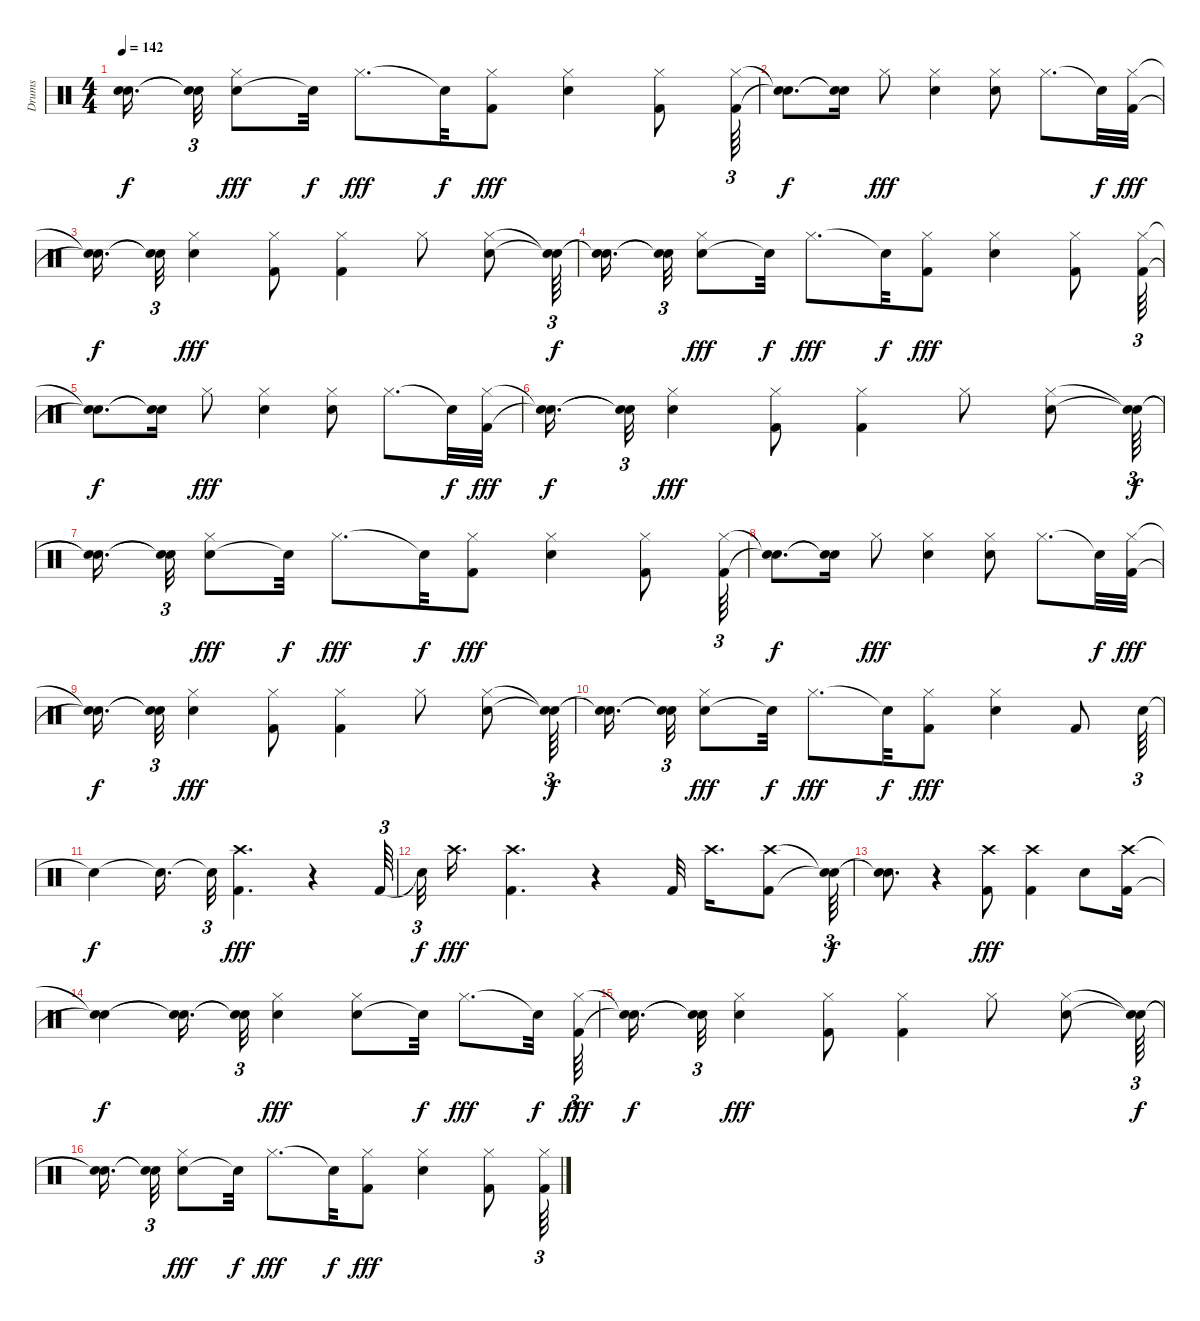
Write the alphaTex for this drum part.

\track ("Drums" "Drums") {instrument percussion}
\staff {score}
\articulation defaults
\ts (4 4)
\tempo 142
\clef neutral
\ks c
("Snare (hit)"{t} "Snare (hit)"{t}).16{d dy f} ("Snare (hit)"{t} "Snare (hit)"{t}).32{tu (3 2)} ("Snare (hit) 2" "Hi-Hat (closed)").8{dy fff} "Snare (hit)"{t}.32{dy f} "Hi-Hat (closed)".8{d dy fff} "Snare (hit)"{t}.32{dy f} ("Hi-Hat (closed)" "Kick (hit) 2").8{dy fff} ("Electric Snare (hit)" "Hi-Hat (closed)").4 ("Hi-Hat (closed)" "Kick (hit) 2").8 ("Hi-Hat (closed)" "Kick (hit) 2").64{tu (3 2)} |
("Snare (hit)"{t} "Snare (hit)"{t}).8{d dy f} ("Snare (hit)"{t} "Snare (hit)"{t}).16 "Hi-Hat (closed)".8{dy fff} ("Snare (hit) 2" "Hi-Hat (closed)").4 ("Snare (hit) 2" "Hi-Hat (closed)").8 "Hi-Hat (closed)".8{d} "Snare (hit)"{t}.32{dy f} ("Hi-Hat (closed)" "Kick (hit) 2").32{dy fff} |
("Snare (hit)"{t} "Snare (hit)"{t}).16{d dy f} ("Snare (hit)"{t} "Snare (hit)"{t}).32{tu (3 2)} ("Electric Snare (hit)" "Hi-Hat (closed)").4{dy fff} ("Kick (hit) 2" "Hi-Hat (closed)").8 ("Hi-Hat (closed)" "Kick (hit) 2").4 "Hi-Hat (closed)".8 ("Snare (hit) 2" "Hi-Hat (closed)").8 ("Snare (hit)"{t} "Snare (hit)"{t}).64{tu (3 2) dy f} |
("Snare (hit)"{t} "Snare (hit)"{t}).16{d} ("Snare (hit)"{t} "Snare (hit)"{t}).32{tu (3 2)} ("Snare (hit) 2" "Hi-Hat (closed)").8{dy fff} "Snare (hit)"{t}.32{dy f} "Hi-Hat (closed)".8{d dy fff} "Snare (hit)"{t}.32{dy f} ("Hi-Hat (closed)" "Kick (hit) 2").8{dy fff} ("Electric Snare (hit)" "Hi-Hat (closed)").4 ("Hi-Hat (closed)" "Kick (hit) 2").8 ("Kick (hit) 2" "Hi-Hat (closed)").64{tu (3 2)} |
("Snare (hit)"{t} "Snare (hit)"{t}).8{d dy f} ("Snare (hit)"{t} "Snare (hit)"{t}).16 "Hi-Hat (closed)".8{dy fff} ("Snare (hit) 2" "Hi-Hat (closed)").4 ("Snare (hit) 2" "Hi-Hat (closed)").8 "Hi-Hat (closed)".8{d} "Snare (hit)"{t}.32{dy f} ("Hi-Hat (closed)" "Kick (hit) 2").32{dy fff} |
("Snare (hit)"{t} "Snare (hit)"{t}).16{d dy f} ("Snare (hit)"{t} "Snare (hit)"{t}).32{tu (3 2)} ("Electric Snare (hit)" "Hi-Hat (closed)").4{dy fff} ("Hi-Hat (closed)" "Kick (hit) 2").8 ("Kick (hit) 2" "Hi-Hat (closed)").4 "Hi-Hat (closed)".8 ("Snare (hit) 2" "Hi-Hat (closed)").8 ("Snare (hit)"{t} "Snare (hit)"{t}).64{tu (3 2) dy f} |
("Snare (hit)"{t} "Snare (hit)"{t}).16{d} ("Snare (hit)"{t} "Snare (hit)"{t}).32{tu (3 2)} ("Snare (hit) 2" "Hi-Hat (closed)").8{dy fff} "Snare (hit)"{t}.32{dy f} "Hi-Hat (closed)".8{d dy fff} "Snare (hit)"{t}.32{dy f} ("Hi-Hat (closed)" "Kick (hit) 2").8{dy fff} ("Electric Snare (hit)" "Hi-Hat (closed)").4 ("Hi-Hat (closed)" "Kick (hit) 2").8 ("Kick (hit) 2" "Hi-Hat (closed)").64{tu (3 2)} |
("Snare (hit)"{t} "Snare (hit)"{t}).8{d dy f} ("Snare (hit)"{t} "Snare (hit)"{t}).16 "Hi-Hat (closed)".8{dy fff} ("Snare (hit) 2" "Hi-Hat (closed)").4 ("Snare (hit) 2" "Hi-Hat (closed)").8 "Hi-Hat (closed)".8{d} "Snare (hit)"{t}.32{dy f} ("Hi-Hat (closed)" "Kick (hit) 2").32{dy fff} |
("Snare (hit)"{t} "Snare (hit)"{t}).16{d dy f} ("Snare (hit)"{t} "Snare (hit)"{t}).32{tu (3 2)} ("Electric Snare (hit)" "Hi-Hat (closed)").4{dy fff} ("Kick (hit) 2" "Hi-Hat (closed)").8 ("Kick (hit) 2" "Hi-Hat (closed)").4 "Hi-Hat (closed)".8 ("Snare (hit) 2" "Hi-Hat (closed)").8 ("Snare (hit)"{t} "Snare (hit)"{t}).64{tu (3 2) dy f} |
("Snare (hit)"{t} "Snare (hit)"{t}).16{d} ("Snare (hit)"{t} "Snare (hit)"{t}).32{tu (3 2)} ("Snare (hit) 2" "Hi-Hat (closed)").8{dy fff} "Snare (hit)"{t}.32{dy f} "Hi-Hat (closed)".8{d dy fff} "Snare (hit)"{t}.32{dy f} ("Hi-Hat (closed)" "Kick (hit) 2").8{dy fff} ("Electric Snare (hit)" "Hi-Hat (closed)").4 "Kick (hit) 2".8 "Snare (hit) 2".64{tu (3 2)} |
"Snare (hit)"{t}.4{dy f} "Snare (hit)"{t}.16{d} "Snare (hit)"{t}.32{tu (3 2)} ("Kick (hit) 2" "Crash high (hit)").4{d dy fff} r.4 "Kick (hit) 2".64{tu (3 2)} |
"Snare (hit)"{t}.32{tu (3 2) dy f} "Crash high (hit)".16{d dy fff} ("Kick (hit) 2" "Crash high (hit)").4{d} r.4 "Kick (hit) 2".32 "Crash high (hit)".16{d} ("Kick (hit) 2" "Crash high (hit)").8 ("Snare (hit)"{t} "Snare (hit)"{t}).64{tu (3 2) dy f} |
("Snare (hit)"{t} "Snare (hit)"{t}).8{d} r.4 ("Kick (hit) 2" "Crash high (hit)").8{dy fff} ("Crash high (hit)" "Kick (hit) 2").4 "Snare (hit) 2".8 ("Kick (hit) 2" "Crash high (hit)").16 |
("Snare (hit)"{t} "Snare (hit)"{t}).4{dy f} ("Snare (hit)"{t} "Snare (hit)"{t}).16{d} ("Snare (hit)"{t} "Snare (hit)"{t}).32{tu (3 2)} ("Snare (hit) 2" "Hi-Hat (closed)").4{dy fff} ("Snare (hit) 2" "Hi-Hat (closed)").8 "Snare (hit)"{t}.32{dy f} "Hi-Hat (closed)".8{d dy fff} "Snare (hit)"{t}.32{dy f} ("Hi-Hat (closed)" "Kick (hit) 2").64{tu (3 2) dy fff} |
("Snare (hit)"{t} "Snare (hit)"{t}).16{d dy f} ("Snare (hit)"{t} "Snare (hit)"{t}).32{tu (3 2)} ("Electric Snare (hit)" "Hi-Hat (closed)").4{dy fff} ("Hi-Hat (closed)" "Kick (hit) 2").8 ("Hi-Hat (closed)" "Kick (hit) 2").4 "Hi-Hat (closed)".8 ("Snare (hit) 2" "Hi-Hat (closed)").8 ("Snare (hit)"{t} "Snare (hit)"{t}).64{tu (3 2) dy f} |
("Snare (hit)"{t} "Snare (hit)"{t}).16{d} ("Snare (hit)"{t} "Snare (hit)"{t}).32{tu (3 2)} ("Snare (hit) 2" "Hi-Hat (closed)").8{dy fff} "Snare (hit)"{t}.32{dy f} "Hi-Hat (closed)".8{d dy fff} "Snare (hit)"{t}.32{dy f} ("Hi-Hat (closed)" "Kick (hit) 2").8{dy fff} ("Electric Snare (hit)" "Hi-Hat (closed)").4 ("Hi-Hat (closed)" "Kick (hit) 2").8 ("Hi-Hat (closed)" "Kick (hit) 2").64{tu (3 2)}
